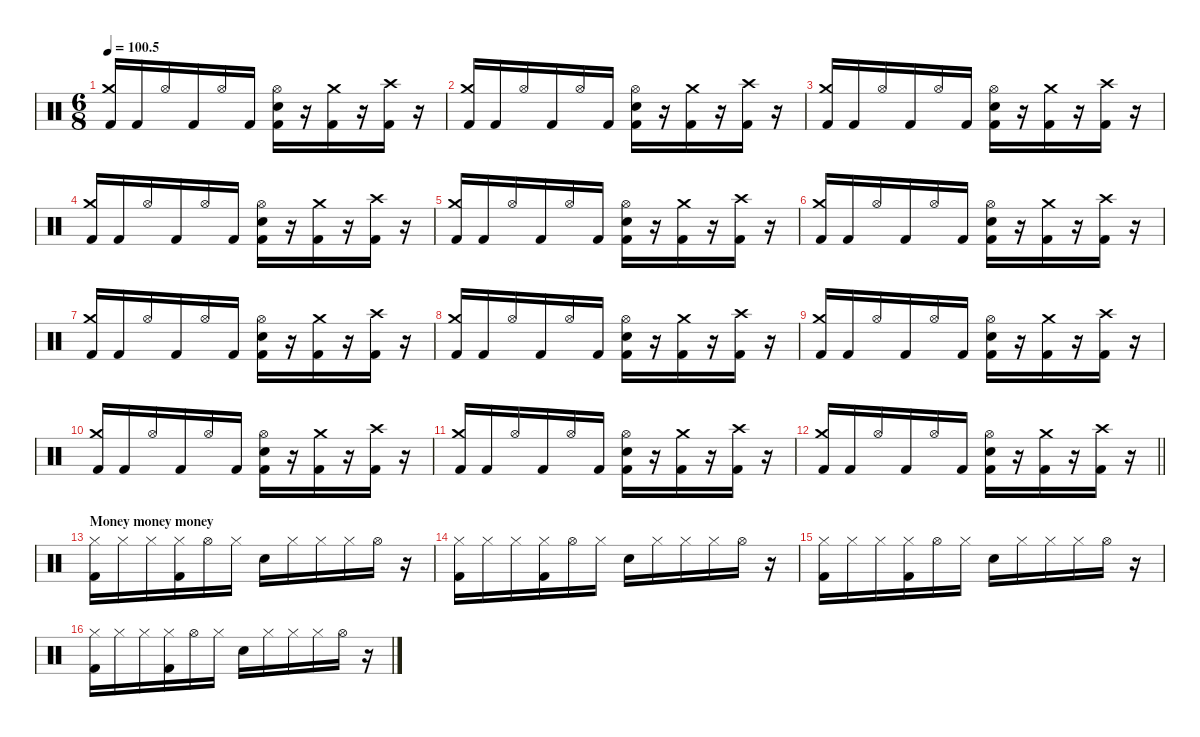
\defaultSystemsLayout 4
\hideDynamics
\bracketExtendMode nobrackets
\singleTrackTrackNamePolicy hidden
\multiTrackTrackNamePolicy hidden
\firstSystemTrackNameMode fullname
\firstSystemTrackNameOrientation horizontal
\otherSystemsTrackNameOrientation horizontal
\track ("Drums" "drm.") {instrument percussion}
\staff {score}
\articulation defaults
\ts (6 8)
\tempo
100.5
\accidentals auto
\clef neutral
\ottava regular
\simile none
\ks c
("Crash medium (hit)" "Kick (hit) 2").16{dy f beam Up} "Kick (hit) 2".16{beam Up} "Hi-Hat (open)".16{beam Up} "Kick (hit) 2".16{beam Up} "Hi-Hat (open)".16{beam Up} "Kick (hit) 2".16{beam Up} ("Hi-Hat (open)" "Snare (hit) 2" "Kick (hit) 2").16{beam Down} r.16{beam Down} ("Crash medium (hit)" "Kick (hit) 2").16{beam Down} r.16{beam Down} ("Crash high (hit)" "Kick (hit) 2").16{beam Down} r.16{beam Down} |
("Crash medium (hit)" "Kick (hit) 2").16{beam Up} "Kick (hit) 2".16{beam Up} "Hi-Hat (open)".16{beam Up} "Kick (hit) 2".16{beam Up} "Hi-Hat (open)".16{beam Up} "Kick (hit) 2".16{beam Up} ("Hi-Hat (open)" "Snare (hit) 2" "Kick (hit) 2").16{beam Down} r.16{beam Down} ("Crash medium (hit)" "Kick (hit) 2").16{beam Down} r.16{beam Down} ("Crash high (hit)" "Kick (hit) 2").16{beam Down} r.16{beam Down} |
("Crash medium (hit)" "Kick (hit) 2").16{beam Up} "Kick (hit) 2".16{beam Up} "Hi-Hat (open)".16{beam Up} "Kick (hit) 2".16{beam Up} "Hi-Hat (open)".16{beam Up} "Kick (hit) 2".16{beam Up} ("Hi-Hat (open)" "Snare (hit) 2" "Kick (hit) 2").16{beam Down} r.16{beam Down} ("Crash medium (hit)" "Kick (hit) 2").16{beam Down} r.16{beam Down} ("Crash high (hit)" "Kick (hit) 2").16{beam Down} r.16{beam Down} |
("Crash medium (hit)" "Kick (hit) 2").16{beam Up} "Kick (hit) 2".16{beam Up} "Hi-Hat (open)".16{beam Up} "Kick (hit) 2".16{beam Up} "Hi-Hat (open)".16{beam Up} "Kick (hit) 2".16{beam Up} ("Hi-Hat (open)" "Snare (hit) 2" "Kick (hit) 2").16{beam Down} r.16{beam Down} ("Crash medium (hit)" "Kick (hit) 2").16{beam Down} r.16{beam Down} ("Crash high (hit)" "Kick (hit) 2").16{beam Down} r.16{beam Down} |
("Crash medium (hit)" "Kick (hit) 2").16{beam Up} "Kick (hit) 2".16{beam Up} "Hi-Hat (open)".16{beam Up} "Kick (hit) 2".16{beam Up} "Hi-Hat (open)".16{beam Up} "Kick (hit) 2".16{beam Up} ("Hi-Hat (open)" "Snare (hit) 2" "Kick (hit) 2").16{beam Down} r.16{beam Down} ("Crash medium (hit)" "Kick (hit) 2").16{beam Down} r.16{beam Down} ("Crash high (hit)" "Kick (hit) 2").16{beam Down} r.16{beam Down} |
("Crash medium (hit)" "Kick (hit) 2").16{beam Up} "Kick (hit) 2".16{beam Up} "Hi-Hat (open)".16{beam Up} "Kick (hit) 2".16{beam Up} "Hi-Hat (open)".16{beam Up} "Kick (hit) 2".16{beam Up} ("Hi-Hat (open)" "Snare (hit) 2" "Kick (hit) 2").16{beam Down} r.16{beam Down} ("Crash medium (hit)" "Kick (hit) 2").16{beam Down} r.16{beam Down} ("Crash high (hit)" "Kick (hit) 2").16{beam Down} r.16{beam Down} |
("Crash medium (hit)" "Kick (hit) 2").16{beam Up} "Kick (hit) 2".16{beam Up} "Hi-Hat (open)".16{beam Up} "Kick (hit) 2".16{beam Up} "Hi-Hat (open)".16{beam Up} "Kick (hit) 2".16{beam Up} ("Hi-Hat (open)" "Snare (hit) 2" "Kick (hit) 2").16{beam Down} r.16{beam Down} ("Crash medium (hit)" "Kick (hit) 2").16{beam Down} r.16{beam Down} ("Crash high (hit)" "Kick (hit) 2").16{beam Down} r.16{beam Down} |
("Crash medium (hit)" "Kick (hit) 2").16{beam Up} "Kick (hit) 2".16{beam Up} "Hi-Hat (open)".16{beam Up} "Kick (hit) 2".16{beam Up} "Hi-Hat (open)".16{beam Up} "Kick (hit) 2".16{beam Up} ("Hi-Hat (open)" "Snare (hit) 2" "Kick (hit) 2").16{beam Down} r.16{beam Down} ("Crash medium (hit)" "Kick (hit) 2").16{beam Down} r.16{beam Down} ("Crash high (hit)" "Kick (hit) 2").16{beam Down} r.16{beam Down} |
("Crash medium (hit)" "Kick (hit) 2").16{beam Up} "Kick (hit) 2".16{beam Up} "Hi-Hat (open)".16{beam Up} "Kick (hit) 2".16{beam Up} "Hi-Hat (open)".16{beam Up} "Kick (hit) 2".16{beam Up} ("Hi-Hat (open)" "Snare (hit) 2" "Kick (hit) 2").16{beam Down} r.16{beam Down} ("Crash medium (hit)" "Kick (hit) 2").16{beam Down} r.16{beam Down} ("Crash high (hit)" "Kick (hit) 2").16{beam Down} r.16{beam Down} |
("Crash medium (hit)" "Kick (hit) 2").16{beam Up} "Kick (hit) 2".16{beam Up} "Hi-Hat (open)".16{beam Up} "Kick (hit) 2".16{beam Up} "Hi-Hat (open)".16{beam Up} "Kick (hit) 2".16{beam Up} ("Hi-Hat (open)" "Snare (hit) 2" "Kick (hit) 2").16{beam Down} r.16{beam Down} ("Crash medium (hit)" "Kick (hit) 2").16{beam Down} r.16{beam Down} ("Crash high (hit)" "Kick (hit) 2").16{beam Down} r.16{beam Down} |
("Crash medium (hit)" "Kick (hit) 2").16{beam Up} "Kick (hit) 2".16{beam Up} "Hi-Hat (open)".16{beam Up} "Kick (hit) 2".16{beam Up} "Hi-Hat (open)".16{beam Up} "Kick (hit) 2".16{beam Up} ("Hi-Hat (open)" "Snare (hit) 2" "Kick (hit) 2").16{beam Down} r.16{beam Down} ("Crash medium (hit)" "Kick (hit) 2").16{beam Down} r.16{beam Down} ("Crash high (hit)" "Kick (hit) 2").16{beam Down} r.16{beam Down} |
\barLineRight lightlight
("Crash medium (hit)" "Kick (hit) 2").16{beam Up} "Kick (hit) 2".16{beam Up} "Hi-Hat (open)".16{beam Up} "Kick (hit) 2".16{beam Up} "Hi-Hat (open)".16{beam Up} "Kick (hit) 2".16{beam Up} ("Hi-Hat (open)" "Snare (hit) 2" "Kick (hit) 2").16{beam Down} r.16{beam Down} ("Crash medium (hit)" "Kick (hit) 2").16{beam Down} r.16{beam Down} ("Crash high (hit)" "Kick (hit) 2").16{beam Down} r.16{beam Down} |
\section ("" "Money money money")
("Hi-Hat (closed)" "Kick (hit) 2").16{beam Down} "Hi-Hat (closed)".16{beam Down} "Hi-Hat (closed)".16{beam Down} ("Hi-Hat (closed)" "Kick (hit) 2").16{beam Down} "Hi-Hat (open)".16{beam Down} "Hi-Hat (closed)".16{beam Down} "Snare (hit) 2".16{beam Down} "Hi-Hat (closed)".16{beam Down} "Hi-Hat (closed)".16{beam Down} "Hi-Hat (closed)".16{beam Down} "Hi-Hat (open)".16{beam Down} r.16{beam Down} |
("Hi-Hat (closed)" "Kick (hit) 2").16{beam Down} "Hi-Hat (closed)".16{beam Down} "Hi-Hat (closed)".16{beam Down} ("Hi-Hat (closed)" "Kick (hit) 2").16{beam Down} "Hi-Hat (open)".16{beam Down} "Hi-Hat (closed)".16{beam Down} "Snare (hit) 2".16{beam Down} "Hi-Hat (closed)".16{beam Down} "Hi-Hat (closed)".16{beam Down} "Hi-Hat (closed)".16{beam Down} "Hi-Hat (open)".16{beam Down} r.16{beam Down} |
("Hi-Hat (closed)" "Kick (hit) 2").16{beam Down} "Hi-Hat (closed)".16{beam Down} "Hi-Hat (closed)".16{beam Down} ("Hi-Hat (closed)" "Kick (hit) 2").16{beam Down} "Hi-Hat (open)".16{beam Down} "Hi-Hat (closed)".16{beam Down} "Snare (hit) 2".16{beam Down} "Hi-Hat (closed)".16{beam Down} "Hi-Hat (closed)".16{beam Down} "Hi-Hat (closed)".16{beam Down} "Hi-Hat (open)".16{beam Down} r.16{beam Down} |
("Hi-Hat (closed)" "Kick (hit) 2").16{beam Down} "Hi-Hat (closed)".16{beam Down} "Hi-Hat (closed)".16{beam Down} ("Hi-Hat (closed)" "Kick (hit) 2").16{beam Down} "Hi-Hat (open)".16{beam Down} "Hi-Hat (closed)".16{beam Down} "Snare (hit) 2".16{beam Down} "Hi-Hat (closed)".16{beam Down} "Hi-Hat (closed)".16{beam Down} "Hi-Hat (closed)".16{beam Down} "Hi-Hat (open)".16{beam Down} r.16{beam Down}
